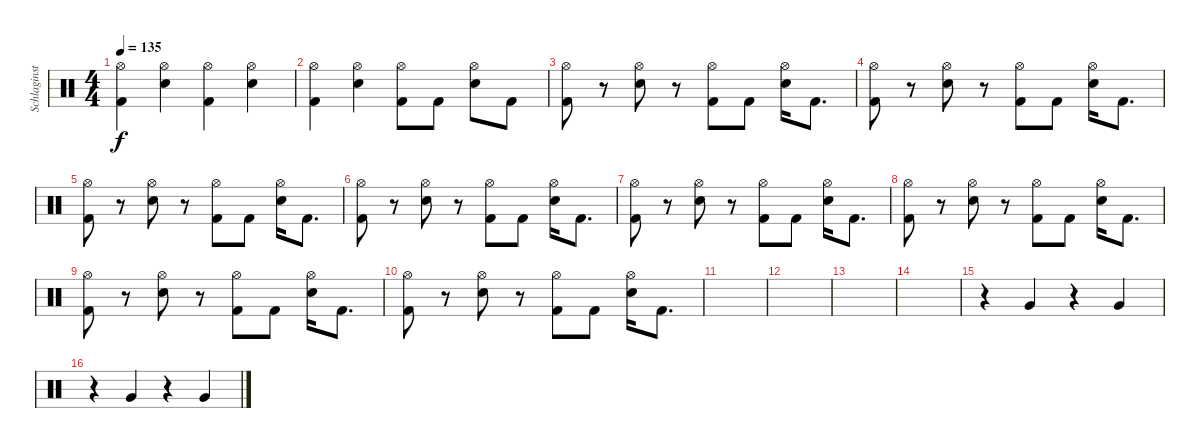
\track ("Schlaginstrumente - Auswahl" "Schlaginst") {instrument percussion}
\staff {score}
\articulation defaults
\ts (4 4)
\tempo 135
\clef neutral
\ks c
("Hi-Hat (open)" "Kick (hit) 2").4{dy f} ("Hi-Hat (open)" "Electric Snare (hit)").4 ("Hi-Hat (open)" "Kick (hit) 2").4 ("Hi-Hat (open)" "Electric Snare (hit)").4 |
("Hi-Hat (open)" "Kick (hit) 2").4 ("Hi-Hat (open)" "Electric Snare (hit)").4 ("Hi-Hat (open)" "Kick (hit) 2").8 "Kick (hit) 2".8 ("Hi-Hat (open)" "Electric Snare (hit)").8 "Kick (hit) 2".8 |
("Hi-Hat (open)" "Kick (hit) 2").8 r.8 ("Hi-Hat (open)" "Electric Snare (hit)").8 r.8 ("Hi-Hat (open)" "Kick (hit) 2").8 "Kick (hit) 2".8 ("Hi-Hat (open)" "Electric Snare (hit)").16 "Kick (hit) 2".8{d} |
("Hi-Hat (open)" "Kick (hit) 2").8 r.8 ("Hi-Hat (open)" "Electric Snare (hit)").8 r.8 ("Hi-Hat (open)" "Kick (hit) 2").8 "Kick (hit) 2".8 ("Hi-Hat (open)" "Electric Snare (hit)").16 "Kick (hit) 2".8{d} |
("Hi-Hat (open)" "Kick (hit) 2").8 r.8 ("Hi-Hat (open)" "Electric Snare (hit)").8 r.8 ("Hi-Hat (open)" "Kick (hit) 2").8 "Kick (hit) 2".8 ("Hi-Hat (open)" "Electric Snare (hit)").16 "Kick (hit) 2".8{d} |
("Hi-Hat (open)" "Kick (hit) 2").8 r.8 ("Hi-Hat (open)" "Electric Snare (hit)").8 r.8 ("Hi-Hat (open)" "Kick (hit) 2").8 "Kick (hit) 2".8 ("Hi-Hat (open)" "Electric Snare (hit)").16 "Kick (hit) 2".8{d} |
("Hi-Hat (open)" "Kick (hit) 2").8 r.8 ("Hi-Hat (open)" "Electric Snare (hit)").8 r.8 ("Hi-Hat (open)" "Kick (hit) 2").8 "Kick (hit) 2".8 ("Hi-Hat (open)" "Electric Snare (hit)").16 "Kick (hit) 2".8{d} |
("Hi-Hat (open)" "Kick (hit) 2").8 r.8 ("Hi-Hat (open)" "Electric Snare (hit)").8 r.8 ("Hi-Hat (open)" "Kick (hit) 2").8 "Kick (hit) 2".8 ("Hi-Hat (open)" "Electric Snare (hit)").16 "Kick (hit) 2".8{d} |
("Hi-Hat (open)" "Kick (hit) 2").8 r.8 ("Hi-Hat (open)" "Electric Snare (hit)").8 r.8 ("Hi-Hat (open)" "Kick (hit) 2").8 "Kick (hit) 2".8 ("Hi-Hat (open)" "Electric Snare (hit)").16 "Kick (hit) 2".8{d} |
("Hi-Hat (open)" "Kick (hit) 2").8 r.8 ("Hi-Hat (open)" "Electric Snare (hit)").8 r.8 ("Hi-Hat (open)" "Kick (hit) 2").8 "Kick (hit) 2".8 ("Hi-Hat (open)" "Electric Snare (hit)").16 "Kick (hit) 2".8{d} |
|
|
|
|
r.4 "Very Low Tom (hit)".4 r.4 "Very Low Tom (hit)".4 |
r.4 "Very Low Tom (hit)".4 r.4 "Very Low Tom (hit)".4
